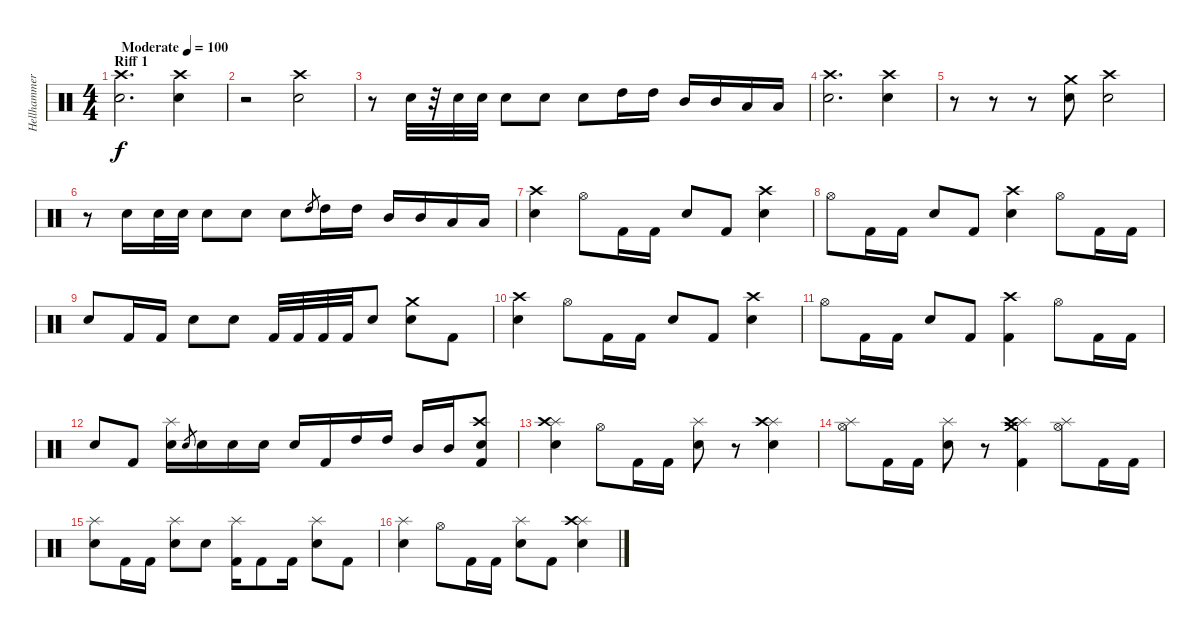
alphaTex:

\track ("Hellhammer" "Hellhammer") {instrument percussion}
\staff {score}
\articulation defaults
\ts (4 4)
\section ("" "Riff 1")
\tempo (100 "Moderate")
\clef neutral
\ks c
("Snare (hit) 2" "Crash high (hit)").2{d dy f} ("Snare (hit) 2" "Crash high (hit)").4 |
r.2 ("Snare (hit) 2" "Crash high (hit)").2 |
r.8 "Snare (hit) 2".32 r.32 "Snare (hit) 2".32 "Snare (hit) 2".32 "Snare (hit) 2".8 "Snare (hit) 2".8 "Snare (hit) 2".8 "High Tom (hit)".16 "High Tom (hit)".16 "Mid Tom (hit)".16 "Mid Tom (hit)".16 "Low Tom (hit)".16 "Low Tom (hit)".16 |
("Crash high (hit)" "Snare (hit) 2").2{d} ("Snare (hit) 2" "Crash high (hit)").4 |
r.8 r.8 r.8 ("Crash medium (hit)" "Snare (hit) 2").8 ("Crash high (hit)" "Snare (hit) 2").2 |
r.8 "Snare (hit) 2".16 "Snare (hit) 2".32 "Snare (hit) 2".32 "Snare (hit) 2".8 "Snare (hit) 2".8 "Snare (hit) 2".8 "High Tom (hit)".8{gr} "High Tom (hit)".16 "High Tom (hit)".16 "Mid Tom (hit)".16 "Mid Tom (hit)".16 "Low Tom (hit)".16 "Low Tom (hit)".16 |
("Crash high (hit)" "Snare (hit) 2").4 "Hi-Hat (open)".8 "Kick (hit) 2".16 "Kick (hit) 2".16 "Snare (hit) 2".8 "Kick (hit) 2".8 ("Crash high (hit)" "Snare (hit) 2").4 |
"Hi-Hat (open)".8 "Kick (hit) 2".16 "Kick (hit) 2".16 "Snare (hit) 2".8 "Kick (hit) 2".8 ("Crash high (hit)" "Snare (hit) 2").4 "Hi-Hat (open)".8 "Kick (hit) 2".16 "Kick (hit) 2".16 |
"Snare (hit) 2".8 "Kick (hit) 2".16 "Kick (hit) 2".16 "Snare (hit) 2".8 "Snare (hit) 2".8 "Kick (hit) 2".32 "Kick (hit) 2".32 "Kick (hit) 2".32 "Kick (hit) 2".32 "Snare (hit) 2".8 ("Crash medium (hit)" "Snare (hit) 2").8 "Kick (hit) 2".8 |
("Crash high (hit)" "Snare (hit) 2").4 "Hi-Hat (open)".8 "Kick (hit) 2".16 "Kick (hit) 2".16 "Snare (hit) 2".8 "Kick (hit) 2".8 ("Crash high (hit)" "Snare (hit) 2").4 |
"Hi-Hat (open)".8 "Kick (hit) 2".16 "Kick (hit) 2".16 "Snare (hit) 2".8 "Kick (hit) 2".8 ("Crash high (hit)" "Kick (hit) 2").4 "Hi-Hat (open)".8 "Kick (hit) 2".16 "Kick (hit) 2".16 |
"Snare (hit) 2".8 "Kick (hit) 2".8 ("Splash (hit)" "Snare (hit) 2").16 "Snare (hit) 2".8{gr} "Snare (hit) 2".16 "Snare (hit) 2".16 "Snare (hit) 2".16 "Snare (hit) 2".16 "Kick (hit) 2".16 "High Tom (hit)".16 "High Tom (hit)".16 "Mid Tom (hit)".16 "Mid Tom (hit)".16 ("Snare (hit) 2" "Crash high (hit)" "Kick (hit) 2").8 |
("Splash (hit)" "Crash high (hit)" "Snare (hit) 2").4 "Hi-Hat (open)".8 "Kick (hit) 2".16 "Kick (hit) 2".16 ("Splash (hit)" "Snare (hit) 2").8 r.8 ("Splash (hit)" "Crash high (hit)" "Snare (hit) 2").4 |
("Splash (hit)" "Hi-Hat (open)").8 "Kick (hit) 2".16 "Kick (hit) 2".16 ("Splash (hit)" "Snare (hit) 2").8 r.8 ("Splash (hit)" "Crash medium (hit)" "Crash high (hit)" "Kick (hit) 2").4 ("Splash (hit)" "Hi-Hat (open)").8 "Kick (hit) 2".16 "Kick (hit) 2".16 |
("Splash (hit)" "Snare (hit) 2").8 "Kick (hit) 2".16 "Kick (hit) 2".16 ("Splash (hit)" "Snare (hit) 2").8 "Snare (hit) 2".8 ("Splash (hit)" "Kick (hit) 2").16 "Kick (hit) 2".8 "Kick (hit) 2".16 ("Splash (hit)" "Snare (hit) 2").8 "Kick (hit) 2".8 |
("Splash (hit)" "Snare (hit) 2").4 "Hi-Hat (open)".8 "Kick (hit) 2".16 "Kick (hit) 2".16 ("Splash (hit)" "Snare (hit) 2").8 "Kick (hit) 2".8 ("Splash (hit)" "Crash high (hit)" "Snare (hit) 2").4
